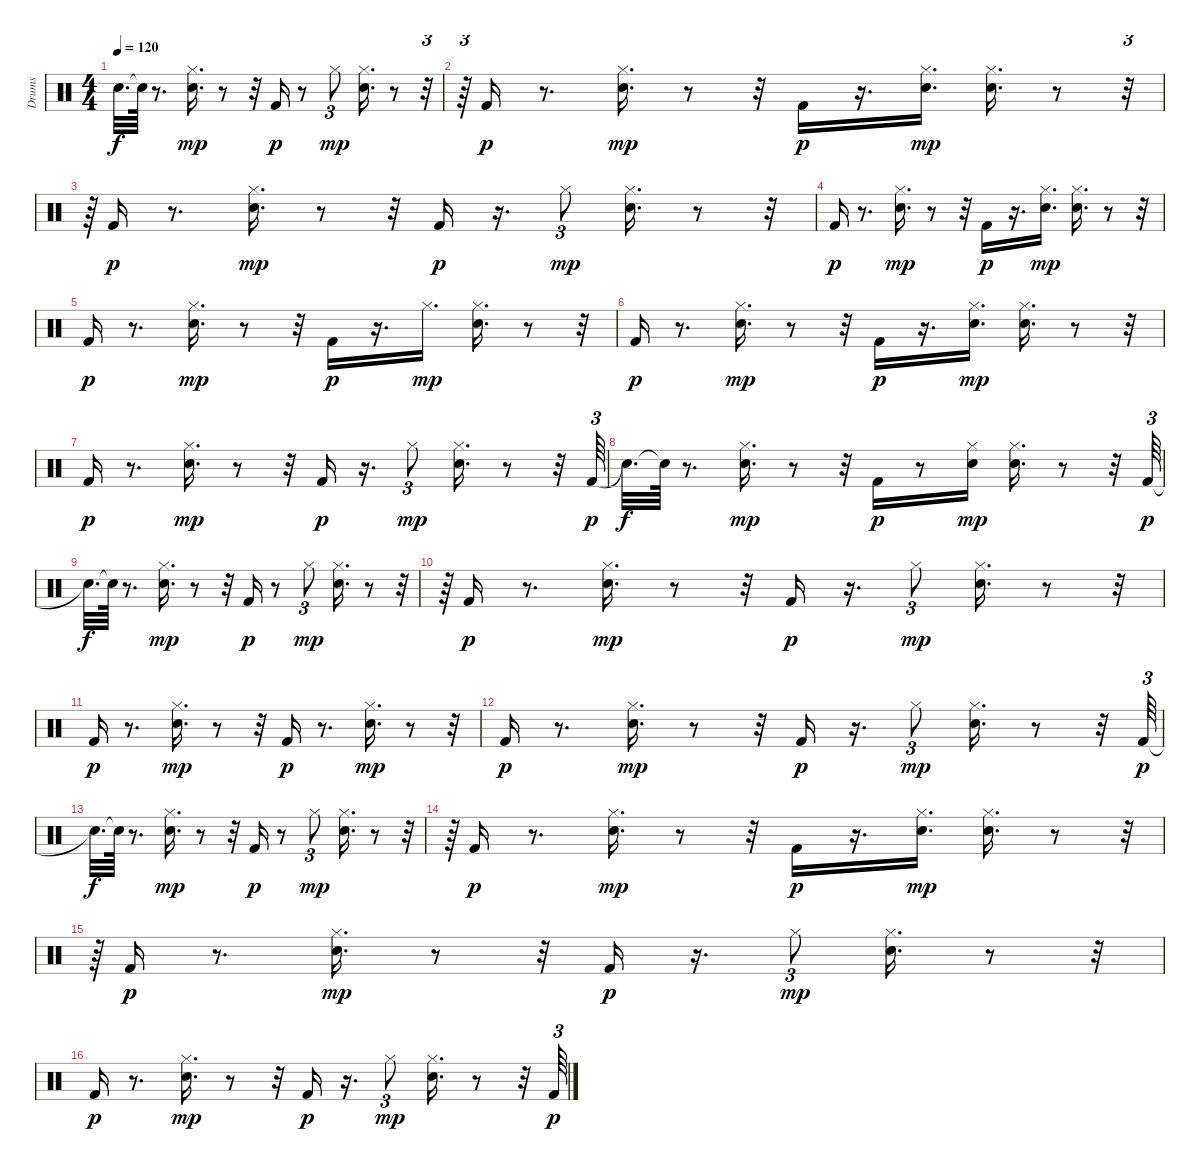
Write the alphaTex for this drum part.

\track ("Drums" "Drums") {instrument percussion}
\staff {score}
\articulation defaults
\ts (4 4)
\tempo 120
\clef neutral
\ks c "Snare (hit)"{t}.32{d dy f} "Snare (hit)"{t}.64
r.8{d} ("Hi-Hat (closed)" "Snare (hit) 2").16{d dy mp} r.8 r.32 "Kick (hit) 2".16{dy p} r.8 "Hi-Hat (closed)".8{tu (3 2) dy mp} ("Hi-Hat (closed)" "Snare (hit) 2").16{d} r.8 r.32{tu (3 2)} |
r.64{tu (3 2)} "Kick (hit) 2".16{dy p} r.8{d} ("Hi-Hat (closed)" "Snare (hit) 2").16{d dy mp} r.8 r.32 "Kick (hit) 2".16{dy p} r.16{d} ("Snare (hit) 2" "Hi-Hat (closed)").16{d dy mp} ("Snare (hit) 2" "Hi-Hat (closed)").16{d} r.8 r.32{tu (3 2)} |
r.64{tu (3 2)} "Kick (hit) 2".16{dy p} r.8{d} ("Hi-Hat (closed)" "Snare (hit) 2").16{d dy mp} r.8 r.32 "Kick (hit) 2".16{dy p} r.16{d} "Hi-Hat (closed)".8{tu (3 2) dy mp} ("Hi-Hat (closed)" "Snare (hit) 2").16{d} r.8 r.32 |
"Kick (hit) 2".16{dy p} r.8{d} ("Hi-Hat (closed)" "Snare (hit) 2").16{d dy mp} r.8 r.32 "Kick (hit) 2".16{dy p} r.16{d} ("Hi-Hat (closed)" "Snare (hit) 2").16{d dy mp} ("Hi-Hat (closed)" "Snare (hit) 2").16{d} r.8 r.32 |
"Kick (hit) 2".16{dy p} r.8{d} ("Snare (hit) 2" "Hi-Hat (closed)").16{d dy mp} r.8 r.32 "Kick (hit) 2".16{dy p} r.16{d} "Hi-Hat (closed)".16{d dy mp} ("Snare (hit) 2" "Hi-Hat (closed)").16{d} r.8 r.32 |
"Kick (hit) 2".16{dy p} r.8{d} ("Snare (hit) 2" "Hi-Hat (closed)").16{d dy mp} r.8 r.32 "Kick (hit) 2".16{dy p} r.16{d} ("Hi-Hat (closed)" "Snare (hit) 2").16{d dy mp} ("Snare (hit) 2" "Hi-Hat (closed)").16{d} r.8 r.32 |
"Kick (hit) 2".16{dy p} r.8{d} ("Hi-Hat (closed)" "Snare (hit) 2").16{d dy mp} r.8 r.32 "Kick (hit) 2".16{dy p} r.16{d} "Hi-Hat (closed)".8{tu (3 2) dy mp} ("Hi-Hat (closed)" "Snare (hit) 2").16{d} r.8 r.32 "Kick (hit) 2".64{tu (3 2) dy p} |
"Snare (hit)"{t}.32{d dy f} "Snare (hit)"{t}.64 r.8{d} ("Hi-Hat (closed)" "Snare (hit) 2").16{d dy mp} r.8 r.32 "Kick (hit) 2".16{dy p} r.8 ("Hi-Hat (closed)" "Snare (hit) 2").16{dy mp} ("Hi-Hat (closed)" "Snare (hit) 2").16{d} r.8 r.32 "Kick (hit) 2".64{tu (3 2) dy p} |
"Snare (hit)"{t}.32{d dy f} "Snare (hit)"{t}.64 r.8{d} ("Hi-Hat (closed)" "Snare (hit) 2").16{d dy mp} r.8 r.32 "Kick (hit) 2".16{dy p} r.8 "Hi-Hat (closed)".8{tu (3 2) dy mp} ("Hi-Hat (closed)" "Snare (hit) 2").16{d} r.8 r.32{tu (3 2)} |
r.64{tu (3 2)} "Kick (hit) 2".16{dy p} r.8{d} ("Hi-Hat (closed)" "Snare (hit) 2").16{d dy mp} r.8 r.32 "Kick (hit) 2".16{dy p} r.16{d} "Hi-Hat (closed)".8{tu (3 2) dy mp} ("Hi-Hat (closed)" "Snare (hit) 2").16{d} r.8 r.32 |
"Kick (hit) 2".16{dy p} r.8{d} ("Hi-Hat (closed)" "Snare (hit) 2").16{d dy mp} r.8 r.32 "Kick (hit) 2".16{dy p} r.8{d} ("Hi-Hat (closed)" "Snare (hit) 2").16{d dy mp} r.8 r.32 |
"Kick (hit) 2".16{dy p} r.8{d} ("Hi-Hat (closed)" "Snare (hit) 2").16{d dy mp} r.8 r.32 "Kick (hit) 2".16{dy p} r.16{d} "Hi-Hat (closed)".8{tu (3 2) dy mp} ("Hi-Hat (closed)" "Snare (hit) 2").16{d} r.8 r.32 "Kick (hit) 2".64{tu (3 2) dy p} |
"Snare (hit)"{t}.32{d dy f} "Snare (hit)"{t}.64 r.8{d} ("Hi-Hat (closed)" "Snare (hit) 2").16{d dy mp} r.8 r.32 "Kick (hit) 2".16{dy p} r.8 "Hi-Hat (closed)".8{tu (3 2) dy mp} ("Hi-Hat (closed)" "Snare (hit) 2").16{d} r.8 r.32{tu (3 2)} |
r.64{tu (3 2)} "Kick (hit) 2".16{dy p} r.8{d} ("Snare (hit) 2" "Hi-Hat (closed)").16{d dy mp} r.8 r.32 "Kick (hit) 2".16{dy p} r.16{d} ("Hi-Hat (closed)" "Snare (hit) 2").16{d dy mp} ("Hi-Hat (closed)" "Snare (hit) 2").16{d} r.8 r.32{tu (3 2)} |
r.64{tu (3 2)} "Kick (hit) 2".16{dy p} r.8{d} ("Hi-Hat (closed)" "Snare (hit) 2").16{d dy mp} r.8 r.32 "Kick (hit) 2".16{dy p} r.16{d} "Hi-Hat (closed)".8{tu (3 2) dy mp} ("Hi-Hat (closed)" "Snare (hit) 2").16{d} r.8 r.32 |
"Kick (hit) 2".16{dy p} r.8{d} ("Hi-Hat (closed)" "Snare (hit) 2").16{d dy mp} r.8 r.32 "Kick (hit) 2".16{dy p} r.16{d} "Hi-Hat (closed)".8{tu (3 2) dy mp} ("Hi-Hat (closed)" "Snare (hit) 2").16{d} r.8 r.32 "Kick (hit) 2".64{tu (3 2) dy p}
